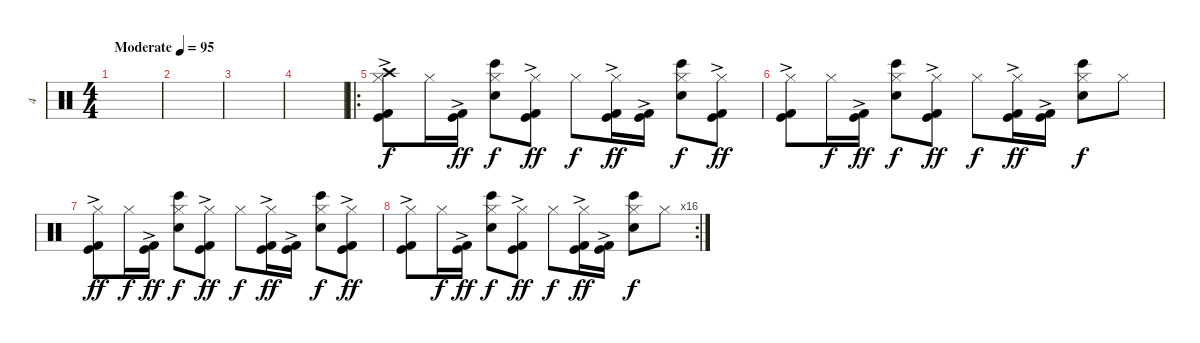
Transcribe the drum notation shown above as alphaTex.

\track ("4" "4") {instrument percussion}
\staff {score}
\articulation defaults
\ts (4 4)
\tempo (95 "Moderate")
\clef neutral
\ks c
|
|
|
|
\ro
("Kick (hit) 2"{ac} "Kick (hit)"{ac} "Hi-Hat (closed)" "Crash high (hit)").8 "Hi-Hat (closed)".16{dy f} ("Kick (hit) 2"{ac} "Kick (hit)"{ac}).16{dy ff} ("Snare (hit) 2" "Hi-Hat (closed)" "Bongo High (hit)").8{dy f} ("Kick (hit) 2"{ac} "Kick (hit)"{ac} "Hi-Hat (closed)").8{dy ff} "Hi-Hat (closed)".8{dy f} ("Kick (hit) 2"{ac} "Kick (hit)"{ac} "Hi-Hat (closed)").16{dy ff} ("Kick (hit) 2"{ac} "Kick (hit)"{ac}).16 ("Snare (hit) 2" "Hi-Hat (closed)" "Bongo High (hit)").8{dy f} ("Kick (hit) 2"{ac} "Kick (hit)"{ac} "Hi-Hat (closed)").8{dy ff} |
("Kick (hit) 2"{ac} "Kick (hit)"{ac} "Hi-Hat (closed)").8 "Hi-Hat (closed)".16{dy f} ("Kick (hit) 2"{ac} "Kick (hit)"{ac}).16{dy ff} ("Snare (hit) 2" "Hi-Hat (closed)" "Bongo High (hit)").8{dy f} ("Kick (hit) 2"{ac} "Kick (hit)"{ac} "Hi-Hat (closed)").8{dy ff} "Hi-Hat (closed)".8{dy f} ("Kick (hit) 2"{ac} "Kick (hit)"{ac} "Hi-Hat (closed)").16{dy ff} ("Kick (hit) 2"{ac} "Kick (hit)"{ac}).16 ("Snare (hit) 2" "Hi-Hat (closed)" "Bongo High (hit)").8{dy f} "Hi-Hat (closed)".8 |
("Kick (hit) 2"{ac} "Kick (hit)"{ac} "Hi-Hat (closed)").8{dy ff} "Hi-Hat (closed)".16{dy f} ("Kick (hit) 2"{ac} "Kick (hit)"{ac}).16{dy ff} ("Snare (hit) 2" "Hi-Hat (closed)" "Bongo High (hit)").8{dy f} ("Kick (hit) 2"{ac} "Kick (hit)"{ac} "Hi-Hat (closed)").8{dy ff} "Hi-Hat (closed)".8{dy f} ("Kick (hit) 2"{ac} "Kick (hit)"{ac} "Hi-Hat (closed)").16{dy ff} ("Kick (hit) 2"{ac} "Kick (hit)"{ac}).16 ("Snare (hit) 2" "Hi-Hat (closed)" "Bongo High (hit)").8{dy f} ("Kick (hit) 2"{ac} "Kick (hit)"{ac} "Hi-Hat (closed)").8{dy ff} |
\rc 16
("Kick (hit) 2"{ac} "Kick (hit)"{ac} "Hi-Hat (closed)").8 "Hi-Hat (closed)".16{dy f} ("Kick (hit) 2"{ac} "Kick (hit)"{ac}).16{dy ff} ("Snare (hit) 2" "Hi-Hat (closed)" "Bongo High (hit)").8{dy f} ("Kick (hit) 2"{ac} "Kick (hit)"{ac} "Hi-Hat (closed)").8{dy ff} "Hi-Hat (closed)".8{dy f} ("Kick (hit) 2"{ac} "Kick (hit)"{ac} "Hi-Hat (closed)").16{dy ff} ("Kick (hit) 2"{ac} "Kick (hit)"{ac}).16 ("Snare (hit) 2" "Hi-Hat (closed)" "Bongo High (hit)").8{dy f} "Hi-Hat (closed)".8
